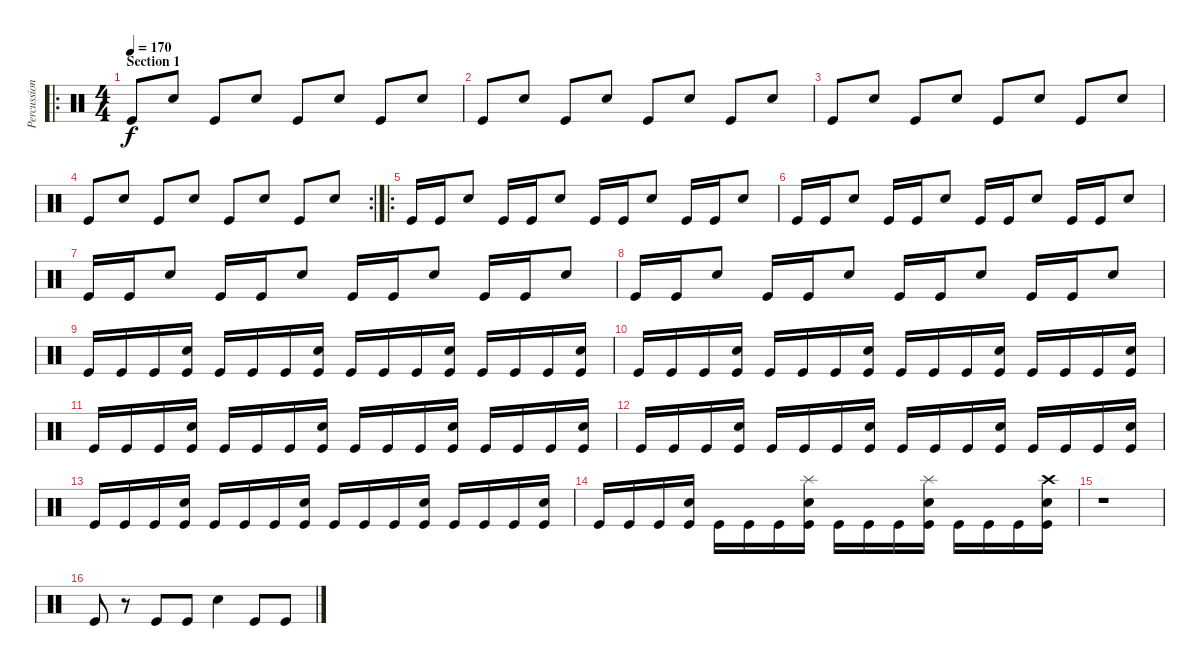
\track ("Percussion" "Percussion") {instrument percussion}
\staff {score}
\articulation defaults
\ro
\ts (4 4)
\section ("" "Section 1")
\tempo 170
\clef neutral
\ks c "Kick (hit)".8{dy f} "Electric Snare (hit)".8 "Kick (hit)".8 "Electric Snare (hit)".8 "Kick (hit)".8 "Electric Snare (hit)".8 "Kick (hit)".8 "Electric Snare (hit)".8
|
"Kick (hit)".8 "Electric Snare (hit)".8 "Kick (hit)".8 "Electric Snare (hit)".8 "Kick (hit)".8 "Electric Snare (hit)".8 "Kick (hit)".8 "Electric Snare (hit)".8 |
"Kick (hit)".8 "Electric Snare (hit)".8 "Kick (hit)".8 "Electric Snare (hit)".8 "Kick (hit)".8 "Electric Snare (hit)".8 "Kick (hit)".8 "Electric Snare (hit)".8 |
\rc 2 "Kick (hit)".8 "Electric Snare (hit)".8 "Kick (hit)".8 "Electric Snare (hit)".8 "Kick (hit)".8 "Electric Snare (hit)".8 "Kick (hit)".8 "Electric Snare (hit)".8
|
\ro "Kick (hit)".16 "Kick (hit)".16 "Electric Snare (hit)".8 "Kick (hit)".16 "Kick (hit)".16 "Electric Snare (hit)".8 "Kick (hit)".16 "Kick (hit)".16 "Electric Snare (hit)".8 "Kick (hit)".16 "Kick (hit)".16 "Electric Snare (hit)".8
|
"Kick (hit)".16 "Kick (hit)".16 "Electric Snare (hit)".8 "Kick (hit)".16 "Kick (hit)".16 "Electric Snare (hit)".8 "Kick (hit)".16 "Kick (hit)".16 "Electric Snare (hit)".8 "Kick (hit)".16 "Kick (hit)".16 "Electric Snare (hit)".8 |
"Kick (hit)".16 "Kick (hit)".16 "Electric Snare (hit)".8 "Kick (hit)".16 "Kick (hit)".16 "Electric Snare (hit)".8 "Kick (hit)".16 "Kick (hit)".16 "Electric Snare (hit)".8 "Kick (hit)".16 "Kick (hit)".16 "Electric Snare (hit)".8 |
"Kick (hit)".16 "Kick (hit)".16 "Electric Snare (hit)".8 "Kick (hit)".16 "Kick (hit)".16 "Electric Snare (hit)".8 "Kick (hit)".16 "Kick (hit)".16 "Electric Snare (hit)".8 "Kick (hit)".16 "Kick (hit)".16 "Electric Snare (hit)".8 |
"Kick (hit)".16 "Kick (hit)".16 "Kick (hit)".16 ("Electric Snare (hit)" "Kick (hit)").16 "Kick (hit)".16 "Kick (hit)".16 "Kick (hit)".16 ("Electric Snare (hit)" "Kick (hit)").16 "Kick (hit)".16 "Kick (hit)".16 "Kick (hit)".16 ("Electric Snare (hit)" "Kick (hit)").16 "Kick (hit)".16 "Kick (hit)".16 "Kick (hit)".16 ("Electric Snare (hit)" "Kick (hit)").16 |
"Kick (hit)".16 "Kick (hit)".16 "Kick (hit)".16 ("Electric Snare (hit)" "Kick (hit)").16 "Kick (hit)".16 "Kick (hit)".16 "Kick (hit)".16 ("Electric Snare (hit)" "Kick (hit)").16 "Kick (hit)".16 "Kick (hit)".16 "Kick (hit)".16 ("Electric Snare (hit)" "Kick (hit)").16 "Kick (hit)".16 "Kick (hit)".16 "Kick (hit)".16 ("Electric Snare (hit)" "Kick (hit)").16 |
"Kick (hit)".16 "Kick (hit)".16 "Kick (hit)".16 ("Electric Snare (hit)" "Kick (hit)").16 "Kick (hit)".16 "Kick (hit)".16 "Kick (hit)".16 ("Electric Snare (hit)" "Kick (hit)").16 "Kick (hit)".16 "Kick (hit)".16 "Kick (hit)".16 ("Electric Snare (hit)" "Kick (hit)").16 "Kick (hit)".16 "Kick (hit)".16 "Kick (hit)".16 ("Electric Snare (hit)" "Kick (hit)").16 |
"Kick (hit)".16 "Kick (hit)".16 "Kick (hit)".16 ("Electric Snare (hit)" "Kick (hit)").16 "Kick (hit)".16 "Kick (hit)".16 "Kick (hit)".16 ("Electric Snare (hit)" "Kick (hit)").16 "Kick (hit)".16 "Kick (hit)".16 "Kick (hit)".16 ("Electric Snare (hit)" "Kick (hit)").16 "Kick (hit)".16 "Kick (hit)".16 "Kick (hit)".16 ("Electric Snare (hit)" "Kick (hit)").16 |
"Kick (hit)".16 "Kick (hit)".16 "Kick (hit)".16 ("Electric Snare (hit)" "Kick (hit)").16 "Kick (hit)".16 "Kick (hit)".16 "Kick (hit)".16 ("Electric Snare (hit)" "Kick (hit)").16 "Kick (hit)".16 "Kick (hit)".16 "Kick (hit)".16 ("Electric Snare (hit)" "Kick (hit)").16 "Kick (hit)".16 "Kick (hit)".16 "Kick (hit)".16 ("Electric Snare (hit)" "Kick (hit)").16 |
"Kick (hit)".16 "Kick (hit)".16 "Kick (hit)".16 ("Electric Snare (hit)" "Kick (hit)").16 "Kick (hit)".16 "Kick (hit)".16 "Kick (hit)".16 ("Splash (hit)" "Electric Snare (hit)" "Kick (hit)").16 "Kick (hit)".16 "Kick (hit)".16 "Kick (hit)".16 ("Splash (hit)" "Electric Snare (hit)" "Kick (hit)").16 "Kick (hit)".16 "Kick (hit)".16 "Kick (hit)".16 ("Crash high (hit)" "Electric Snare (hit)" "Kick (hit)").16 |
r.1 |
"Kick (hit)".8 r.8 "Kick (hit)".8 "Kick (hit)".8 "Electric Snare (hit)".4 "Kick (hit)".8 "Kick (hit)".8
